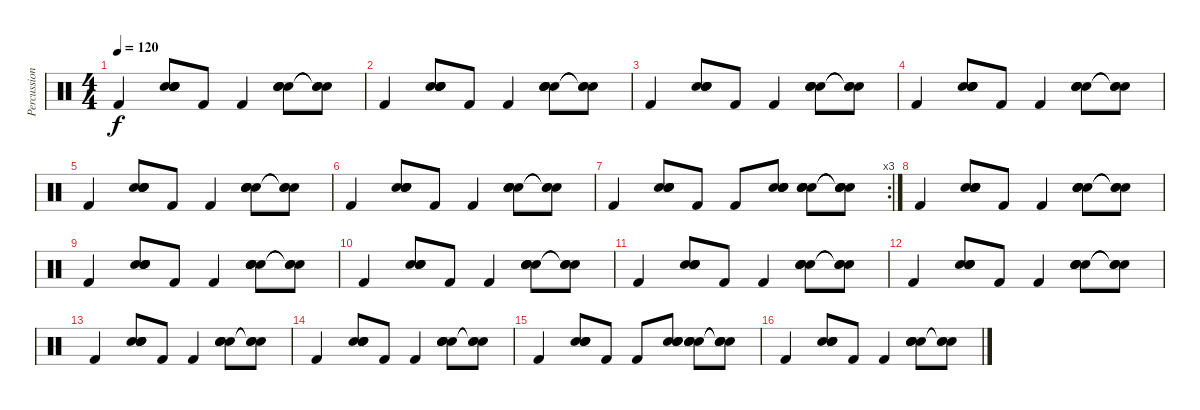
\track ("Percussion" "Percussion") {instrument percussion}
\staff {score}
\articulation defaults
\ts (4 4)
\tempo 120
\clef neutral
\ks c "Kick (hit) 2".4{dy f}
("Snare (hit) 2" "Snare (hit) 2" "Electric Snare (hit)" "Electric Snare (hit)").8 "Kick (hit) 2".8 "Kick (hit) 2".4 ("Snare (hit) 2" "Snare (hit) 2" "Electric Snare (hit)" "Electric Snare (hit)").8 ("Snare (hit)"{t} "Snare (hit)"{t} "Snare (hit)"{t}).8 |
"Kick (hit) 2".4 ("Snare (hit) 2" "Snare (hit) 2" "Electric Snare (hit)" "Electric Snare (hit)").8 "Kick (hit) 2".8 "Kick (hit) 2".4 ("Snare (hit) 2" "Snare (hit) 2" "Electric Snare (hit)" "Electric Snare (hit)").8 ("Snare (hit)"{t} "Snare (hit)"{t} "Snare (hit)"{t}).8 |
"Kick (hit) 2".4 ("Snare (hit) 2" "Snare (hit) 2" "Electric Snare (hit)" "Electric Snare (hit)").8 "Kick (hit) 2".8 "Kick (hit) 2".4 ("Snare (hit) 2" "Snare (hit) 2" "Electric Snare (hit)" "Electric Snare (hit)").8 ("Snare (hit)"{t} "Snare (hit)"{t} "Snare (hit)"{t}).8 |
"Kick (hit) 2".4 ("Snare (hit) 2" "Snare (hit) 2" "Electric Snare (hit)" "Electric Snare (hit)").8 "Kick (hit) 2".8 "Kick (hit) 2".4 ("Snare (hit) 2" "Snare (hit) 2" "Electric Snare (hit)" "Electric Snare (hit)").8 ("Snare (hit)"{t} "Snare (hit)"{t} "Snare (hit)"{t}).8 |
"Kick (hit) 2".4 ("Snare (hit) 2" "Snare (hit) 2" "Electric Snare (hit)" "Electric Snare (hit)").8 "Kick (hit) 2".8 "Kick (hit) 2".4 ("Snare (hit) 2" "Snare (hit) 2" "Electric Snare (hit)" "Electric Snare (hit)").8 ("Snare (hit)"{t} "Snare (hit)"{t} "Snare (hit)"{t}).8 |
"Kick (hit) 2".4 ("Snare (hit) 2" "Snare (hit) 2" "Electric Snare (hit)" "Electric Snare (hit)").8 "Kick (hit) 2".8 "Kick (hit) 2".4 ("Snare (hit) 2" "Snare (hit) 2" "Electric Snare (hit)" "Electric Snare (hit)").8 ("Snare (hit)"{t} "Snare (hit)"{t} "Snare (hit)"{t}).8 |
\rc 3 "Kick (hit) 2".4
("Snare (hit) 2" "Snare (hit) 2" "Electric Snare (hit)" "Electric Snare (hit)").8 "Kick (hit) 2".8 "Kick (hit) 2".8 ("Snare (hit) 2" "Snare (hit) 2" "Electric Snare (hit)" "Electric Snare (hit)").8 ("Snare (hit) 2" "Snare (hit) 2" "Electric Snare (hit)" "Electric Snare (hit)").8 ("Snare (hit)"{t} "Snare (hit)"{t} "Snare (hit)"{t} "Snare (hit)"{t}).8 |
"Kick (hit) 2".4 ("Snare (hit) 2" "Snare (hit) 2" "Electric Snare (hit)" "Electric Snare (hit)").8 "Kick (hit) 2".8 "Kick (hit) 2".4 ("Snare (hit) 2" "Snare (hit) 2" "Electric Snare (hit)" "Electric Snare (hit)").8 ("Snare (hit)"{t} "Snare (hit)"{t} "Snare (hit)"{t}).8 |
"Kick (hit) 2".4 ("Snare (hit) 2" "Snare (hit) 2" "Electric Snare (hit)" "Electric Snare (hit)").8 "Kick (hit) 2".8 "Kick (hit) 2".4 ("Snare (hit) 2" "Snare (hit) 2" "Electric Snare (hit)" "Electric Snare (hit)").8 ("Snare (hit)"{t} "Snare (hit)"{t} "Snare (hit)"{t}).8 |
"Kick (hit) 2".4 ("Snare (hit) 2" "Snare (hit) 2" "Electric Snare (hit)" "Electric Snare (hit)").8 "Kick (hit) 2".8 "Kick (hit) 2".4 ("Snare (hit) 2" "Snare (hit) 2" "Electric Snare (hit)" "Electric Snare (hit)").8 ("Snare (hit)"{t} "Snare (hit)"{t} "Snare (hit)"{t}).8 |
"Kick (hit) 2".4 ("Snare (hit) 2" "Snare (hit) 2" "Electric Snare (hit)" "Electric Snare (hit)").8 "Kick (hit) 2".8 "Kick (hit) 2".4 ("Snare (hit) 2" "Snare (hit) 2" "Electric Snare (hit)" "Electric Snare (hit)").8 ("Snare (hit)"{t} "Snare (hit)"{t} "Snare (hit)"{t}).8 |
"Kick (hit) 2".4 ("Snare (hit) 2" "Snare (hit) 2" "Electric Snare (hit)" "Electric Snare (hit)").8 "Kick (hit) 2".8 "Kick (hit) 2".4 ("Snare (hit) 2" "Snare (hit) 2" "Electric Snare (hit)" "Electric Snare (hit)").8 ("Snare (hit)"{t} "Snare (hit)"{t} "Snare (hit)"{t}).8 |
"Kick (hit) 2".4 ("Snare (hit) 2" "Snare (hit) 2" "Electric Snare (hit)" "Electric Snare (hit)").8 "Kick (hit) 2".8 "Kick (hit) 2".4 ("Snare (hit) 2" "Snare (hit) 2" "Electric Snare (hit)" "Electric Snare (hit)").8 ("Snare (hit)"{t} "Snare (hit)"{t} "Snare (hit)"{t}).8 |
"Kick (hit) 2".4 ("Snare (hit) 2" "Snare (hit) 2" "Electric Snare (hit)" "Electric Snare (hit)").8 "Kick (hit) 2".8 "Kick (hit) 2".4 ("Snare (hit) 2" "Snare (hit) 2" "Electric Snare (hit)" "Electric Snare (hit)").8 ("Snare (hit)"{t} "Snare (hit)"{t} "Snare (hit)"{t}).8 |
"Kick (hit) 2".4 ("Snare (hit) 2" "Snare (hit) 2" "Electric Snare (hit)" "Electric Snare (hit)").8 "Kick (hit) 2".8 "Kick (hit) 2".8 ("Snare (hit) 2" "Snare (hit) 2" "Electric Snare (hit)" "Electric Snare (hit)").8 ("Snare (hit) 2" "Snare (hit) 2" "Electric Snare (hit)" "Electric Snare (hit)").8 ("Snare (hit)"{t} "Snare (hit)"{t} "Snare (hit)"{t} "Snare (hit)"{t}).8 |
"Kick (hit) 2".4 ("Snare (hit) 2" "Snare (hit) 2" "Electric Snare (hit)" "Electric Snare (hit)").8 "Kick (hit) 2".8 "Kick (hit) 2".4 ("Snare (hit) 2" "Snare (hit) 2" "Electric Snare (hit)" "Electric Snare (hit)").8 ("Snare (hit)"{t} "Snare (hit)"{t} "Snare (hit)"{t}).8
